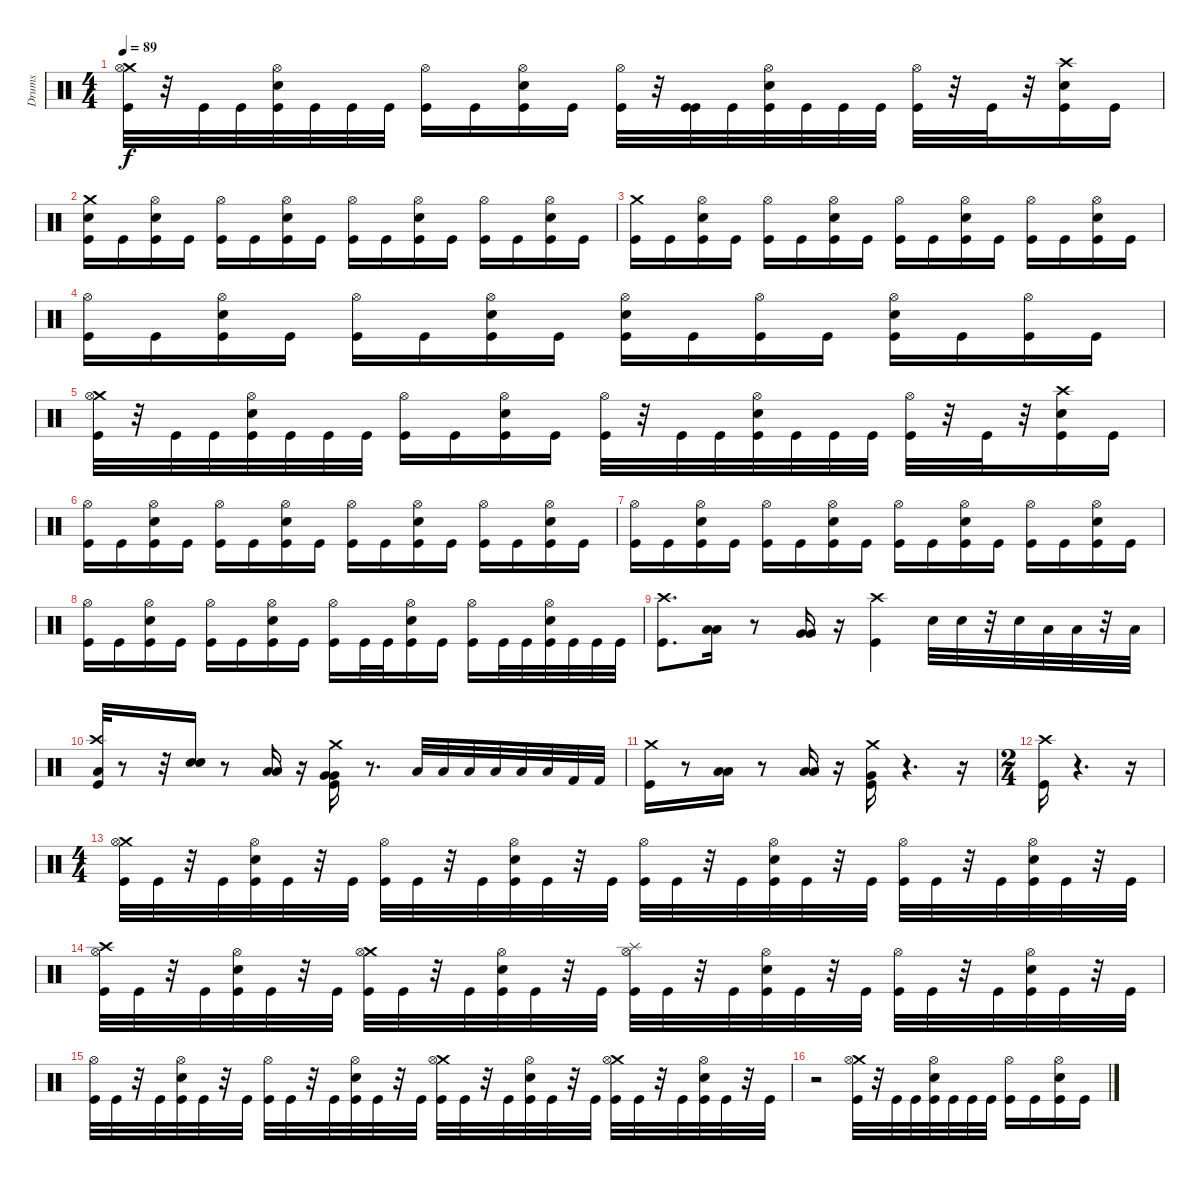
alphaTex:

\track ("Drums" "Drums") {instrument percussion}
\staff {score}
\articulation defaults
\ts (4 4)
\tempo 89
\clef neutral
\ks c
("Crash medium (hit)" "Hi-Hat (open)" "Kick (hit)").32{dy f volume 15 balance 8} r.32 "Kick (hit)".32 "Kick (hit)".32 ("Snare (hit) 2" "Hi-Hat (open)" "Kick (hit)").32 "Kick (hit)".32 "Kick (hit)".32 "Kick (hit)".32 ("Hi-Hat (open)" "Kick (hit)").16 "Kick (hit)".16 ("Snare (hit) 2" "Hi-Hat (open)" "Kick (hit)").16 "Kick (hit)".16 ("Hi-Hat (open)" "Kick (hit)").32 r.32 ("Kick (hit)" "Kick (hit)").32 "Kick (hit)".32 ("Snare (hit) 2" "Hi-Hat (open)" "Kick (hit)").32 "Kick (hit)".32 "Kick (hit)".32 "Kick (hit)".32 ("Hi-Hat (open)" "Kick (hit)").32 r.32 "Kick (hit)".32 r.32 ("Crash high (hit)" "Snare (hit) 2" "Kick (hit)").16 "Kick (hit)".16 |
("Kick (hit)" "Snare (hit) 2" "Crash medium (hit)").16 "Kick (hit)".16 ("Hi-Hat (open)" "Snare (hit) 2" "Kick (hit)").16 "Kick (hit)".16 ("Kick (hit)" "Hi-Hat (open)").16 "Kick (hit)".16 ("Snare (hit) 2" "Kick (hit)" "Hi-Hat (open)").16 "Kick (hit)".16 ("Kick (hit)" "Hi-Hat (open)").16 "Kick (hit)".16 ("Kick (hit)" "Snare (hit) 2" "Hi-Hat (open)").16 "Kick (hit)".16 ("Kick (hit)" "Hi-Hat (open)").16 "Kick (hit)".16 ("Kick (hit)" "Snare (hit) 2" "Hi-Hat (open)").16 "Kick (hit)".16 |
("Kick (hit)" "Crash medium (hit)").16 "Kick (hit)".16 ("Hi-Hat (open)" "Snare (hit) 2" "Kick (hit)").16 "Kick (hit)".16 ("Kick (hit)" "Hi-Hat (open)").16 "Kick (hit)".16 ("Snare (hit) 2" "Kick (hit)" "Hi-Hat (open)").16 "Kick (hit)".16 ("Kick (hit)" "Hi-Hat (open)").16 "Kick (hit)".16 ("Kick (hit)" "Snare (hit) 2" "Hi-Hat (open)").16 "Kick (hit)".16 ("Kick (hit)" "Hi-Hat (open)").16 "Kick (hit)".16 ("Kick (hit)" "Snare (hit) 2" "Hi-Hat (open)").16 "Kick (hit)".16 |
("Hi-Hat (open)" "Kick (hit)").16 "Kick (hit)".16 ("Hi-Hat (open)" "Snare (hit) 2" "Kick (hit)").16 "Kick (hit)".16 ("Hi-Hat (open)" "Kick (hit)").16 "Kick (hit)".16 ("Hi-Hat (open)" "Snare (hit) 2" "Kick (hit)").16 "Kick (hit)".16 ("Snare (hit) 2" "Hi-Hat (open)" "Kick (hit)").16 "Kick (hit)".16 ("Hi-Hat (open)" "Kick (hit)").16 "Kick (hit)".16 ("Snare (hit) 2" "Hi-Hat (open)" "Kick (hit)").16 "Kick (hit)".16 ("Hi-Hat (open)" "Kick (hit)").16 "Kick (hit)".16 |
("Crash medium (hit)" "Hi-Hat (open)" "Kick (hit)").32 r.32 "Kick (hit)".32 "Kick (hit)".32 ("Snare (hit) 2" "Hi-Hat (open)" "Kick (hit)").32 "Kick (hit)".32 "Kick (hit)".32 "Kick (hit)".32 ("Hi-Hat (open)" "Kick (hit)").16 "Kick (hit)".16 ("Snare (hit) 2" "Hi-Hat (open)" "Kick (hit)").16 "Kick (hit)".16 ("Hi-Hat (open)" "Kick (hit)").32 r.32 "Kick (hit)".32 "Kick (hit)".32 ("Snare (hit) 2" "Hi-Hat (open)" "Kick (hit)").32 "Kick (hit)".32 "Kick (hit)".32 "Kick (hit)".32 ("Hi-Hat (open)" "Kick (hit)").32 r.32 "Kick (hit)".32 r.32 ("Crash high (hit)" "Snare (hit) 2" "Kick (hit)").16 "Kick (hit)".16 |
("Hi-Hat (open)" "Kick (hit)").16 "Kick (hit)".16 ("Hi-Hat (open)" "Snare (hit) 2" "Kick (hit)").16 "Kick (hit)".16 ("Hi-Hat (open)" "Kick (hit)").16 "Kick (hit)".16 ("Hi-Hat (open)" "Snare (hit) 2" "Kick (hit)").16 "Kick (hit)".16 ("Hi-Hat (open)" "Kick (hit)").16 "Kick (hit)".16 ("Snare (hit) 2" "Hi-Hat (open)" "Kick (hit)").16 "Kick (hit)".16 ("Hi-Hat (open)" "Kick (hit)").16 "Kick (hit)".16 ("Snare (hit) 2" "Hi-Hat (open)" "Kick (hit)").16 "Kick (hit)".16 |
("Hi-Hat (open)" "Kick (hit)").16 "Kick (hit)".16 ("Hi-Hat (open)" "Snare (hit) 2" "Kick (hit)").16 "Kick (hit)".16 ("Hi-Hat (open)" "Kick (hit)").16 "Kick (hit)".16 ("Hi-Hat (open)" "Snare (hit) 2" "Kick (hit)").16 "Kick (hit)".16 ("Hi-Hat (open)" "Kick (hit)").16 "Kick (hit)".16 ("Snare (hit) 2" "Hi-Hat (open)" "Kick (hit)").16 "Kick (hit)".16 ("Hi-Hat (open)" "Kick (hit)").16 "Kick (hit)".16 ("Snare (hit) 2" "Hi-Hat (open)" "Kick (hit)").16 "Kick (hit)".16 |
("Hi-Hat (open)" "Kick (hit)").16{volume 15 balance 8} "Kick (hit)".16 ("Hi-Hat (open)" "Snare (hit) 2" "Kick (hit)").16 "Kick (hit)".16 ("Hi-Hat (open)" "Kick (hit)").16 "Kick (hit)".16 ("Hi-Hat (open)" "Snare (hit) 2" "Kick (hit)").16 "Kick (hit)".16 ("Hi-Hat (open)" "Kick (hit)").16 "Kick (hit)".32 "Kick (hit)".32 ("Snare (hit) 2" "Hi-Hat (open)" "Kick (hit)").16 "Kick (hit)".16 ("Hi-Hat (open)" "Kick (hit)").16 "Kick (hit)".32 "Kick (hit)".32 ("Kick (hit)" "Snare (hit) 2" "Hi-Hat (open)").32 "Kick (hit)".32 "Kick (hit)".32 "Kick (hit)".32 |
("Kick (hit)" "Crash high (hit)").8{d volume 15 balance 8} ("Low Tom (hit)" "Low Tom (hit)").16 r.8 ("Very Low Tom (hit)" "Very Low Tom (hit)").16 r.16 ("Crash high (hit)" "Kick (hit)").4 "Snare (hit) 2".32 "Snare (hit) 2".32 r.32 "Snare (hit) 2".32 "Low Tom (hit)".32 "Low Tom (hit)".32 r.32 "Low Tom (hit)".32 |
("Low Floor Tom (hit)" "Crash high (hit)" "Kick (hit)").32 r.8 r.32 ("Snare (hit) 2" "Snare (hit) 2").16 r.8 ("Low Tom (hit)" "Low Tom (hit)").16 r.16 ("Kick (hit)" "Crash medium (hit)" "Very Low Tom (hit)" "Very Low Tom (hit)").16 r.8{d} "Low Tom (hit)".32 "Low Tom (hit)".32 "Low Tom (hit)".32 "Low Floor Tom (hit)".32 "Low Floor Tom (hit)".32 "Low Floor Tom (hit)".32 "Kick (hit) 2".32 "Kick (hit) 2".32 |
("Crash medium (hit)" "Kick (hit)").16 r.8 ("Low Tom (hit)" "Low Tom (hit)").16 r.8 ("Low Floor Tom (hit)" "Low Floor Tom (hit)").16 r.16 ("Crash medium (hit)" "Very Low Tom (hit)" "Kick (hit)").16 r.4{d} r.16 |
\ts (2 4)
("Crash high (hit)" "Kick (hit)").16 r.4{d} r.16 |
\ts (4 4)
("Crash medium (hit)" "Hi-Hat (open)" "Kick (hit)").32{volume 15 balance 8} "Kick (hit)".32 r.32 "Kick (hit)".32 ("Snare (hit) 2" "Hi-Hat (open)" "Kick (hit)").32 "Kick (hit)".32 r.32 "Kick (hit)".32 ("Hi-Hat (open)" "Kick (hit)").32 "Kick (hit)".32 r.32 "Kick (hit)".32 ("Snare (hit) 2" "Hi-Hat (open)" "Kick (hit)").32 "Kick (hit)".32 r.32 "Kick (hit)".32 ("Hi-Hat (open)" "Kick (hit)").32 "Kick (hit)".32 r.32 "Kick (hit)".32 ("Snare (hit) 2" "Hi-Hat (open)" "Kick (hit)").32 "Kick (hit)".32 r.32 "Kick (hit)".32 ("Hi-Hat (open)" "Kick (hit)").32 "Kick (hit)".32 r.32 "Kick (hit)".32 ("Snare (hit) 2" "Hi-Hat (open)" "Kick (hit)").32 "Kick (hit)".32 r.32 "Kick (hit)".32 |
("Crash high (hit)" "Hi-Hat (open)" "Kick (hit)").32 "Kick (hit)".32 r.32 "Kick (hit)".32 ("Snare (hit) 2" "Hi-Hat (open)" "Kick (hit)").32 "Kick (hit)".32 r.32 "Kick (hit)".32 ("Crash medium (hit)" "Hi-Hat (open)" "Kick (hit)").32 "Kick (hit)".32 r.32 "Kick (hit)".32 ("Snare (hit) 2" "Hi-Hat (open)" "Kick (hit)").32 "Kick (hit)".32 r.32 "Kick (hit)".32 ("Splash (hit)" "Hi-Hat (open)" "Kick (hit)").32 "Kick (hit)".32 r.32 "Kick (hit)".32 ("Snare (hit) 2" "Hi-Hat (open)" "Kick (hit)").32 "Kick (hit)".32 r.32 "Kick (hit)".32 ("Hi-Hat (open)" "Kick (hit)").32 "Kick (hit)".32 r.32 "Kick (hit)".32 ("Snare (hit) 2" "Hi-Hat (open)" "Kick (hit)").32 "Kick (hit)".32 r.32 "Kick (hit)".32 |
("Hi-Hat (open)" "Kick (hit)").32 "Kick (hit)".32 r.32 "Kick (hit)".32 ("Snare (hit) 2" "Hi-Hat (open)" "Kick (hit)").32 "Kick (hit)".32 r.32 "Kick (hit)".32 ("Hi-Hat (open)" "Kick (hit)").32 "Kick (hit)".32 r.32 "Kick (hit)".32 ("Snare (hit) 2" "Hi-Hat (open)" "Kick (hit)").32 "Kick (hit)".32 r.32 "Kick (hit)".32 ("Crash medium (hit)" "Hi-Hat (open)" "Kick (hit)").32 "Kick (hit)".32 r.32 "Kick (hit)".32 ("Snare (hit) 2" "Hi-Hat (open)" "Kick (hit)").32 "Kick (hit)".32 r.32 "Kick (hit)".32 ("Crash medium (hit)" "Hi-Hat (open)" "Kick (hit)").32 "Kick (hit)".32 r.32 "Kick (hit)".32 ("Snare (hit) 2" "Hi-Hat (open)" "Kick (hit)").32 "Kick (hit)".32 r.32 "Kick (hit)".32 |
r.2 ("Crash medium (hit)" "Hi-Hat (open)" "Kick (hit)").32{volume 16 balance 8} r.32 "Kick (hit)".32 "Kick (hit)".32 ("Snare (hit) 2" "Hi-Hat (open)" "Kick (hit)").32 "Kick (hit)".32 "Kick (hit)".32 "Kick (hit)".32 ("Hi-Hat (open)" "Kick (hit)").16 "Kick (hit)".16 ("Snare (hit) 2" "Hi-Hat (open)" "Kick (hit)").16 "Kick (hit)".16
